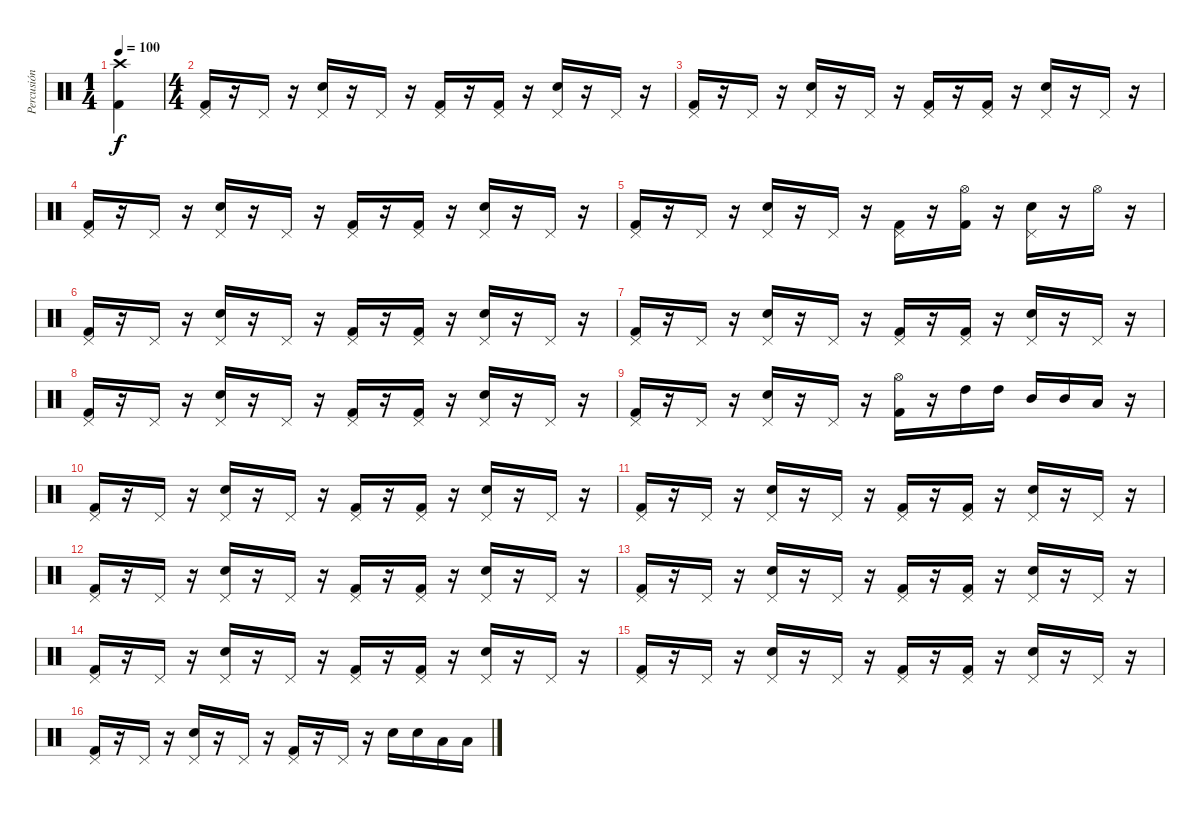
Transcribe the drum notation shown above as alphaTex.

\track ("Percusión" "Percusión") {instrument percussion}
\staff {score}
\articulation defaults
\ts (1 4)
\tempo 100
\clef neutral
\ks c
("Crash high (hit)" "Kick (hit) 2").4{dy f} |
\ts (4 4)
("Pedal Hi-Hat (hit)" "Kick (hit) 2").16 r.16 "Pedal Hi-Hat (hit)".16 r.16 ("Pedal Hi-Hat (hit)" "Snare (hit) 2").16 r.16 "Pedal Hi-Hat (hit)".16 r.16 ("Pedal Hi-Hat (hit)" "Kick (hit) 2").16 r.16 ("Pedal Hi-Hat (hit)" "Kick (hit) 2").16 r.16 ("Pedal Hi-Hat (hit)" "Snare (hit) 2").16 r.16 "Pedal Hi-Hat (hit)".16 r.16 |
("Pedal Hi-Hat (hit)" "Kick (hit) 2").16 r.16 "Pedal Hi-Hat (hit)".16 r.16 ("Pedal Hi-Hat (hit)" "Snare (hit) 2").16 r.16 "Pedal Hi-Hat (hit)".16 r.16 ("Pedal Hi-Hat (hit)" "Kick (hit) 2").16 r.16 ("Pedal Hi-Hat (hit)" "Kick (hit) 2").16 r.16 ("Pedal Hi-Hat (hit)" "Snare (hit) 2").16 r.16 "Pedal Hi-Hat (hit)".16 r.16 |
("Pedal Hi-Hat (hit)" "Kick (hit) 2").16 r.16 "Pedal Hi-Hat (hit)".16 r.16 ("Pedal Hi-Hat (hit)" "Snare (hit) 2").16 r.16 "Pedal Hi-Hat (hit)".16 r.16 ("Pedal Hi-Hat (hit)" "Kick (hit) 2").16 r.16 ("Pedal Hi-Hat (hit)" "Kick (hit) 2").16 r.16 ("Pedal Hi-Hat (hit)" "Snare (hit) 2").16 r.16 "Pedal Hi-Hat (hit)".16 r.16 |
("Pedal Hi-Hat (hit)" "Kick (hit) 2").16 r.16 "Pedal Hi-Hat (hit)".16 r.16 ("Pedal Hi-Hat (hit)" "Snare (hit) 2").16 r.16 "Pedal Hi-Hat (hit)".16 r.16 ("Pedal Hi-Hat (hit)" "Kick (hit) 2").16 r.16 ("Hi-Hat (open)" "Kick (hit) 2").16 r.16 ("Pedal Hi-Hat (hit)" "Snare (hit) 2").16 r.16 "Hi-Hat (open)".16 r.16 |
("Pedal Hi-Hat (hit)" "Kick (hit) 2").16 r.16 "Pedal Hi-Hat (hit)".16 r.16 ("Pedal Hi-Hat (hit)" "Snare (hit) 2").16 r.16 "Pedal Hi-Hat (hit)".16 r.16 ("Pedal Hi-Hat (hit)" "Kick (hit) 2").16 r.16 ("Pedal Hi-Hat (hit)" "Kick (hit) 2").16 r.16 ("Pedal Hi-Hat (hit)" "Snare (hit) 2").16 r.16 "Pedal Hi-Hat (hit)".16 r.16 |
("Pedal Hi-Hat (hit)" "Kick (hit) 2").16 r.16 "Pedal Hi-Hat (hit)".16 r.16 ("Pedal Hi-Hat (hit)" "Snare (hit) 2").16 r.16 "Pedal Hi-Hat (hit)".16 r.16 ("Pedal Hi-Hat (hit)" "Kick (hit) 2").16 r.16 ("Pedal Hi-Hat (hit)" "Kick (hit) 2").16 r.16 ("Pedal Hi-Hat (hit)" "Snare (hit) 2").16 r.16 "Pedal Hi-Hat (hit)".16 r.16 |
("Pedal Hi-Hat (hit)" "Kick (hit) 2").16 r.16 "Pedal Hi-Hat (hit)".16 r.16 ("Pedal Hi-Hat (hit)" "Snare (hit) 2").16 r.16 "Pedal Hi-Hat (hit)".16 r.16 ("Pedal Hi-Hat (hit)" "Kick (hit) 2").16 r.16 ("Pedal Hi-Hat (hit)" "Kick (hit) 2").16 r.16 ("Pedal Hi-Hat (hit)" "Snare (hit) 2").16 r.16 "Pedal Hi-Hat (hit)".16 r.16 |
("Pedal Hi-Hat (hit)" "Kick (hit) 2").16 r.16 "Pedal Hi-Hat (hit)".16 r.16 ("Pedal Hi-Hat (hit)" "Snare (hit) 2").16 r.16 "Pedal Hi-Hat (hit)".16 r.16 ("Hi-Hat (open)" "Kick (hit) 2").16 r.16 "High Tom (hit)".16 "High Tom (hit)".16 "Mid Tom (hit)".16 "Mid Tom (hit)".16 "Low Tom (hit)".16 r.16 |
("Pedal Hi-Hat (hit)" "Kick (hit) 2").16 r.16 "Pedal Hi-Hat (hit)".16 r.16 ("Pedal Hi-Hat (hit)" "Snare (hit) 2").16 r.16 "Pedal Hi-Hat (hit)".16 r.16 ("Pedal Hi-Hat (hit)" "Kick (hit) 2").16 r.16 ("Pedal Hi-Hat (hit)" "Kick (hit) 2").16 r.16 ("Pedal Hi-Hat (hit)" "Snare (hit) 2").16 r.16 "Pedal Hi-Hat (hit)".16 r.16 |
("Pedal Hi-Hat (hit)" "Kick (hit) 2").16 r.16 "Pedal Hi-Hat (hit)".16 r.16 ("Pedal Hi-Hat (hit)" "Snare (hit) 2").16 r.16 "Pedal Hi-Hat (hit)".16 r.16 ("Pedal Hi-Hat (hit)" "Kick (hit) 2").16 r.16 ("Pedal Hi-Hat (hit)" "Kick (hit) 2").16 r.16 ("Pedal Hi-Hat (hit)" "Snare (hit) 2").16 r.16 "Pedal Hi-Hat (hit)".16 r.16 |
("Pedal Hi-Hat (hit)" "Kick (hit) 2").16 r.16 "Pedal Hi-Hat (hit)".16 r.16 ("Pedal Hi-Hat (hit)" "Snare (hit) 2").16 r.16 "Pedal Hi-Hat (hit)".16 r.16 ("Pedal Hi-Hat (hit)" "Kick (hit) 2").16 r.16 ("Pedal Hi-Hat (hit)" "Kick (hit) 2").16 r.16 ("Pedal Hi-Hat (hit)" "Snare (hit) 2").16 r.16 "Pedal Hi-Hat (hit)".16 r.16 |
("Pedal Hi-Hat (hit)" "Kick (hit) 2").16 r.16 "Pedal Hi-Hat (hit)".16 r.16 ("Pedal Hi-Hat (hit)" "Snare (hit) 2").16 r.16 "Pedal Hi-Hat (hit)".16 r.16 ("Pedal Hi-Hat (hit)" "Kick (hit) 2").16 r.16 ("Pedal Hi-Hat (hit)" "Kick (hit) 2").16 r.16 ("Pedal Hi-Hat (hit)" "Snare (hit) 2").16 r.16 "Pedal Hi-Hat (hit)".16 r.16 |
("Pedal Hi-Hat (hit)" "Kick (hit) 2").16 r.16 "Pedal Hi-Hat (hit)".16 r.16 ("Pedal Hi-Hat (hit)" "Snare (hit) 2").16 r.16 "Pedal Hi-Hat (hit)".16 r.16 ("Pedal Hi-Hat (hit)" "Kick (hit) 2").16 r.16 ("Pedal Hi-Hat (hit)" "Kick (hit) 2").16 r.16 ("Pedal Hi-Hat (hit)" "Snare (hit) 2").16 r.16 "Pedal Hi-Hat (hit)".16 r.16 |
("Pedal Hi-Hat (hit)" "Kick (hit) 2").16 r.16 "Pedal Hi-Hat (hit)".16 r.16 ("Pedal Hi-Hat (hit)" "Snare (hit) 2").16 r.16 "Pedal Hi-Hat (hit)".16 r.16 ("Pedal Hi-Hat (hit)" "Kick (hit) 2").16 r.16 ("Pedal Hi-Hat (hit)" "Kick (hit) 2").16 r.16 ("Pedal Hi-Hat (hit)" "Snare (hit) 2").16 r.16 "Pedal Hi-Hat (hit)".16 r.16 |
("Pedal Hi-Hat (hit)" "Kick (hit) 2").16 r.16 "Pedal Hi-Hat (hit)".16 r.16 ("Pedal Hi-Hat (hit)" "Snare (hit) 2").16 r.16 "Pedal Hi-Hat (hit)".16 r.16 ("Pedal Hi-Hat (hit)" "Kick (hit) 2").16 r.16 "Pedal Hi-Hat (hit)".16 r.16 "Snare (hit) 2".16 "Snare (hit) 2".16 "Low Tom (hit)".16 "Low Tom (hit)".16
